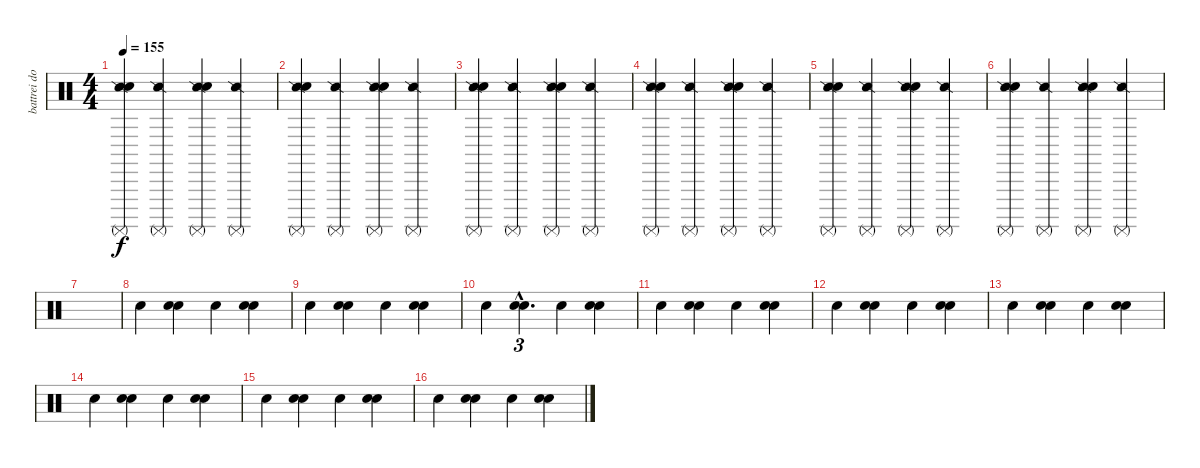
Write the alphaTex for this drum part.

\track ("battrei dom" "battrei do") {instrument percussion}
\staff {score}
\articulation defaults
\ts (4 4)
\tempo 155
\clef neutral
\ks c
("Snare (side stick) 2" "Snare (hit) 2" "Surdo (mute)").4{dy f} ("Snare (side stick) 2" "Surdo (mute)").4 ("Snare (side stick) 2" "Snare (hit) 2" "Surdo (mute)").4 ("Snare (side stick) 2" "Surdo (mute)").4 |
("Snare (side stick) 2" "Snare (hit) 2" "Surdo (mute)").4 ("Snare (side stick) 2" "Surdo (mute)").4 ("Snare (side stick) 2" "Snare (hit) 2" "Surdo (mute)").4 ("Snare (side stick) 2" "Surdo (mute)").4 |
("Snare (side stick) 2" "Snare (hit) 2" "Surdo (mute)").4 ("Snare (side stick) 2" "Surdo (mute)").4 ("Snare (side stick) 2" "Snare (hit) 2" "Surdo (mute)").4 ("Snare (side stick) 2" "Surdo (mute)").4 |
("Snare (side stick) 2" "Snare (hit) 2" "Surdo (mute)").4 ("Snare (side stick) 2" "Surdo (mute)").4 ("Snare (side stick) 2" "Snare (hit) 2" "Surdo (mute)").4 ("Snare (side stick) 2" "Surdo (mute)").4 |
("Snare (side stick) 2" "Snare (hit) 2" "Surdo (mute)").4 ("Snare (side stick) 2" "Surdo (mute)").4 ("Snare (side stick) 2" "Snare (hit) 2" "Surdo (mute)").4 ("Snare (side stick) 2" "Surdo (mute)").4 |
("Snare (side stick) 2" "Snare (hit) 2" "Surdo (mute)").4 ("Snare (side stick) 2" "Surdo (mute)").4 ("Snare (side stick) 2" "Snare (hit) 2" "Surdo (mute)").4 ("Snare (side stick) 2" "Surdo (mute)").4 |
|
"Snare (hit) 2".4 ("Snare (hit) 2" "Snare (hit) 2").4 "Snare (hit) 2".4 ("Snare (hit) 2" "Snare (hit) 2").4 |
"Snare (hit) 2".4 ("Snare (hit) 2" "Snare (hit) 2").4 "Snare (hit) 2".4 ("Snare (hit) 2" "Snare (hit) 2").4 |
"Snare (hit) 2".4 ("Snare (hit) 2"{hac} "Snare (hit) 2"{hac}).4{d tu (3 2)} "Snare (hit) 2".4 ("Snare (hit) 2" "Snare (hit) 2").4 |
"Snare (hit) 2".4 ("Snare (hit) 2" "Snare (hit) 2").4 "Snare (hit) 2".4 ("Snare (hit) 2" "Snare (hit) 2").4 |
"Snare (hit) 2".4 ("Snare (hit) 2" "Snare (hit) 2").4 "Snare (hit) 2".4 ("Snare (hit) 2" "Snare (hit) 2").4 |
"Snare (hit) 2".4 ("Snare (hit) 2" "Snare (hit) 2").4 "Snare (hit) 2".4 ("Snare (hit) 2" "Snare (hit) 2").4 |
"Snare (hit) 2".4 ("Snare (hit) 2" "Snare (hit) 2").4 "Snare (hit) 2".4 ("Snare (hit) 2" "Snare (hit) 2").4 |
"Snare (hit) 2".4 ("Snare (hit) 2" "Snare (hit) 2").4 "Snare (hit) 2".4 ("Snare (hit) 2" "Snare (hit) 2").4 |
"Snare (hit) 2".4 ("Snare (hit) 2" "Snare (hit) 2").4 "Snare (hit) 2".4 ("Snare (hit) 2" "Snare (hit) 2").4
